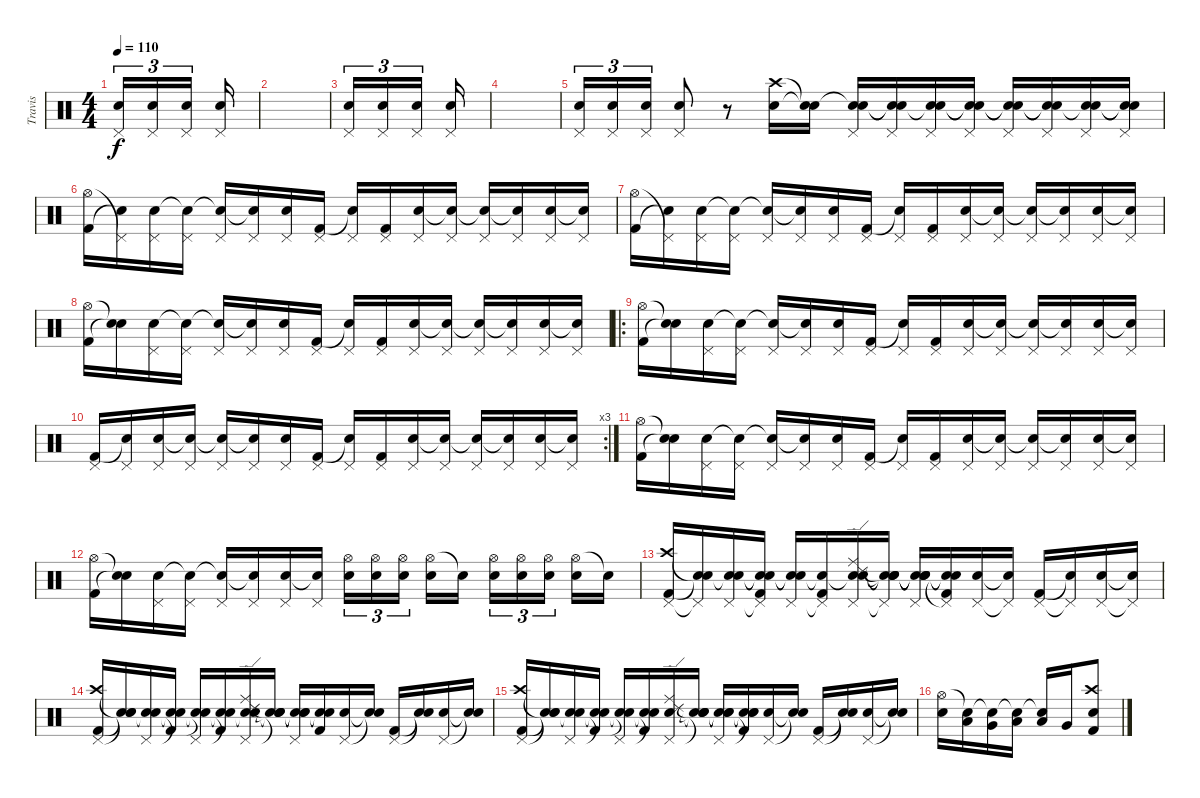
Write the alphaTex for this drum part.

\track ("Travis" "Travis") {instrument percussion}
\staff {score}
\articulation defaults
\ts (4 4)
\tempo 110
\clef neutral
\ks c
("Pedal Hi-Hat (hit)" "Electric Snare (hit)").16{tu (3 2) dy f} ("Pedal Hi-Hat (hit)" "Electric Snare (hit)").16{tu (3 2)} ("Pedal Hi-Hat (hit)" "Electric Snare (hit)").16{tu (3 2)} ("Pedal Hi-Hat (hit)" "Electric Snare (hit)").16 |
|
("Pedal Hi-Hat (hit)" "Electric Snare (hit)").16{tu (3 2)} ("Pedal Hi-Hat (hit)" "Electric Snare (hit)").16{tu (3 2)} ("Pedal Hi-Hat (hit)" "Electric Snare (hit)").16{tu (3 2)} ("Pedal Hi-Hat (hit)" "Electric Snare (hit)").16 |
|
("Pedal Hi-Hat (hit)" "Electric Snare (hit)").16{tu (3 2)} ("Pedal Hi-Hat (hit)" "Electric Snare (hit)").16{tu (3 2)} ("Pedal Hi-Hat (hit)" "Electric Snare (hit)").16{tu (3 2)} ("Pedal Hi-Hat (hit)" "Electric Snare (hit)").8 r.8 ("Crash high (hit)" "Electric Snare (hit)").16 ("Snare (hit)"{t} "Snare (hit)"{t}).16 ("Snare (hit)"{t} "Pedal Hi-Hat (hit)" "Snare (hit)").16 ("Snare (hit)"{t} "Pedal Hi-Hat (hit)" "Snare (hit)"{t}).16 ("Snare (hit)"{t} "Pedal Hi-Hat (hit)" "Electric Snare (hit)").16 ("Snare (hit)"{t} "Pedal Hi-Hat (hit)" "Snare (hit)"{t}).16 ("Snare (hit)"{t} "Pedal Hi-Hat (hit)" "Snare (hit)"{t}).16 ("Snare (hit)"{t} "Pedal Hi-Hat (hit)" "Snare (hit)"{t}).16 ("Snare (hit)"{t} "Pedal Hi-Hat (hit)" "Electric Snare (hit)").16 ("Snare (hit)"{t} "Pedal Hi-Hat (hit)" "Snare (hit)"{t}).16 |
("Hi-Hat (open)" "Kick (hit) 2").16 ("Pedal Hi-Hat (hit)"{t} "Snare (hit)"{t}).16 ("Pedal Hi-Hat (hit)" "Electric Snare (hit)").16 ("Pedal Hi-Hat (hit)" "Snare (hit)"{t}).16 ("Pedal Hi-Hat (hit)" "Snare (hit)"{t}).16 ("Pedal Hi-Hat (hit)" "Snare (hit)"{t}).16 ("Pedal Hi-Hat (hit)" "Electric Snare (hit)").16 ("Pedal Hi-Hat (hit)" "Kick (hit) 2").16 ("Pedal Hi-Hat (hit)" "Snare (hit)"{t}).16 ("Pedal Hi-Hat (hit)" "Kick (hit) 2").16 ("Pedal Hi-Hat (hit)" "Electric Snare (hit)").16 ("Pedal Hi-Hat (hit)" "Snare (hit)"{t}).16 ("Pedal Hi-Hat (hit)" "Snare (hit)"{t}).16 ("Pedal Hi-Hat (hit)" "Snare (hit)"{t}).16 ("Pedal Hi-Hat (hit)" "Electric Snare (hit)").16 ("Pedal Hi-Hat (hit)" "Snare (hit)"{t}).16 |
("Hi-Hat (open)" "Kick (hit) 2").16 ("Pedal Hi-Hat (hit)"{t} "Snare (hit)"{t}).16 ("Pedal Hi-Hat (hit)" "Electric Snare (hit)").16 ("Pedal Hi-Hat (hit)" "Snare (hit)"{t}).16 ("Pedal Hi-Hat (hit)" "Snare (hit)"{t}).16 ("Pedal Hi-Hat (hit)" "Snare (hit)"{t}).16 ("Pedal Hi-Hat (hit)" "Electric Snare (hit)").16 ("Pedal Hi-Hat (hit)" "Kick (hit) 2").16 ("Pedal Hi-Hat (hit)" "Snare (hit)"{t}).16 ("Pedal Hi-Hat (hit)" "Kick (hit) 2").16 ("Pedal Hi-Hat (hit)" "Electric Snare (hit)").16 ("Pedal Hi-Hat (hit)" "Snare (hit)"{t}).16 ("Pedal Hi-Hat (hit)" "Snare (hit)"{t}).16 ("Pedal Hi-Hat (hit)" "Snare (hit)"{t}).16 ("Pedal Hi-Hat (hit)" "Electric Snare (hit)").16 ("Pedal Hi-Hat (hit)" "Snare (hit)"{t}).16 |
("Hi-Hat (open)" "Kick (hit) 2").16 ("Snare (hit)"{t} "Snare (hit)"{t}).16 ("Pedal Hi-Hat (hit)" "Electric Snare (hit)").16 ("Pedal Hi-Hat (hit)" "Snare (hit)"{t}).16 ("Pedal Hi-Hat (hit)" "Snare (hit)"{t}).16 ("Pedal Hi-Hat (hit)" "Electric Snare (hit)"{t}).16 ("Pedal Hi-Hat (hit)" "Electric Snare (hit)").16 ("Pedal Hi-Hat (hit)" "Kick (hit) 2").16 ("Pedal Hi-Hat (hit)" "Snare (hit)"{t}).16 ("Pedal Hi-Hat (hit)" "Kick (hit) 2").16 ("Pedal Hi-Hat (hit)" "Electric Snare (hit)").16 ("Pedal Hi-Hat (hit)" "Snare (hit)"{t}).16 ("Pedal Hi-Hat (hit)" "Snare (hit)"{t}).16 ("Pedal Hi-Hat (hit)" "Snare (hit)"{t}).16 ("Pedal Hi-Hat (hit)" "Electric Snare (hit)").16 ("Pedal Hi-Hat (hit)" "Snare (hit)"{t}).16 |
\ro
("Hi-Hat (open)" "Kick (hit) 2").16 ("Snare (hit)"{t} "Snare (hit)"{t}).16 ("Pedal Hi-Hat (hit)" "Electric Snare (hit)").16 ("Pedal Hi-Hat (hit)" "Snare (hit)"{t}).16 ("Pedal Hi-Hat (hit)" "Snare (hit)"{t}).16 ("Pedal Hi-Hat (hit)" "Snare (hit)"{t}).16 ("Pedal Hi-Hat (hit)" "Electric Snare (hit)").16 ("Pedal Hi-Hat (hit)" "Kick (hit) 2").16 ("Pedal Hi-Hat (hit)" "Snare (hit)"{t}).16 ("Pedal Hi-Hat (hit)" "Kick (hit) 2").16 ("Pedal Hi-Hat (hit)" "Electric Snare (hit)").16 ("Pedal Hi-Hat (hit)" "Snare (hit)"{t}).16 ("Pedal Hi-Hat (hit)" "Snare (hit)"{t}).16 ("Pedal Hi-Hat (hit)" "Snare (hit)"{t}).16 ("Pedal Hi-Hat (hit)" "Electric Snare (hit)").16 ("Pedal Hi-Hat (hit)" "Snare (hit)"{t}).16 |
\rc 3
("Pedal Hi-Hat (hit)" "Kick (hit) 2").16 ("Pedal Hi-Hat (hit)" "Snare (hit)"{t}).16 ("Pedal Hi-Hat (hit)" "Electric Snare (hit)").16 ("Pedal Hi-Hat (hit)" "Snare (hit)"{t}).16 ("Pedal Hi-Hat (hit)" "Snare (hit)"{t}).16 ("Pedal Hi-Hat (hit)" "Snare (hit)"{t}).16 ("Pedal Hi-Hat (hit)" "Electric Snare (hit)").16 ("Pedal Hi-Hat (hit)" "Kick (hit) 2").16 ("Pedal Hi-Hat (hit)" "Snare (hit)"{t}).16 ("Pedal Hi-Hat (hit)" "Kick (hit) 2").16 ("Pedal Hi-Hat (hit)" "Electric Snare (hit)").16 ("Pedal Hi-Hat (hit)" "Snare (hit)"{t}).16 ("Pedal Hi-Hat (hit)" "Snare (hit)"{t}).16 ("Pedal Hi-Hat (hit)" "Snare (hit)"{t}).16 ("Pedal Hi-Hat (hit)" "Electric Snare (hit)").16 ("Pedal Hi-Hat (hit)" "Snare (hit)"{t}).16 |
("Hi-Hat (open)" "Kick (hit) 2").16 ("Snare (hit)"{t} "Snare (hit)"{t}).16 ("Pedal Hi-Hat (hit)" "Electric Snare (hit)").16 ("Pedal Hi-Hat (hit)" "Snare (hit)"{t}).16 ("Pedal Hi-Hat (hit)" "Snare (hit)"{t}).16 ("Pedal Hi-Hat (hit)" "Electric Snare (hit)"{t}).16 ("Pedal Hi-Hat (hit)" "Electric Snare (hit)").16 ("Pedal Hi-Hat (hit)" "Kick (hit) 2").16 ("Pedal Hi-Hat (hit)" "Snare (hit)"{t}).16 ("Pedal Hi-Hat (hit)" "Kick (hit) 2").16 ("Pedal Hi-Hat (hit)" "Electric Snare (hit)").16 ("Pedal Hi-Hat (hit)" "Snare (hit)"{t}).16 ("Pedal Hi-Hat (hit)" "Snare (hit)"{t}).16 ("Pedal Hi-Hat (hit)" "Electric Snare (hit)"{t}).16 ("Pedal Hi-Hat (hit)" "Electric Snare (hit)").16 ("Pedal Hi-Hat (hit)" "Snare (hit)"{t}).16 |
("Hi-Hat (open)" "Kick (hit) 2").16 ("Snare (hit)"{t} "Snare (hit)"{t}).16 ("Pedal Hi-Hat (hit)" "Electric Snare (hit)").16 ("Pedal Hi-Hat (hit)" "Snare (hit)"{t}).16 ("Pedal Hi-Hat (hit)" "Snare (hit)"{t}).16 ("Pedal Hi-Hat (hit)" "Snare (hit)"{t}).16 ("Pedal Hi-Hat (hit)" "Electric Snare (hit)").16 ("Pedal Hi-Hat (hit)" "Snare (hit)"{t}).16 ("Hi-Hat (open)" "Electric Snare (hit)").16{tu (3 2)} ("Hi-Hat (open)" "Electric Snare (hit)").16{tu (3 2)} ("Hi-Hat (open)" "Electric Snare (hit)").16{tu (3 2)} ("Hi-Hat (open)" "Electric Snare (hit)").16 "Snare (hit)"{t}.16 ("Hi-Hat (open)" "Electric Snare (hit)").16{tu (3 2)} ("Hi-Hat (open)" "Electric Snare (hit)").16{tu (3 2)} ("Hi-Hat (open)" "Electric Snare (hit)").16{tu (3 2)} ("Hi-Hat (open)" "Electric Snare (hit)").16 "Snare (hit)"{t}.16 |
("Crash high (hit)" "Pedal Hi-Hat (hit)" "Kick (hit) 2").16 ("Snare (hit)"{t} "Pedal Hi-Hat (hit)"{t} "Snare (hit)"{t}).16 ("Snare (hit)"{t} "Pedal Hi-Hat (hit)" "Electric Snare (hit)").16 ("Snare (hit)"{t} "Pedal Hi-Hat (hit)"{t} "Electric Snare (hit)"{t} "Kick (hit) 2").16 ("Snare (hit)"{t} "Pedal Hi-Hat (hit)" "Snare (hit)"{t}).16 ("Snare (hit)"{t} "Pedal Hi-Hat (hit)"{t} "Kick (hit) 2").16 ("Snare (hit)"{t} "Ride (middle)" "Ride (edge) 2" "Pedal Hi-Hat (hit)" "Electric Snare (hit)").16 ("Snare (hit)"{t} "Snare (hit)"{t} "Snare (hit)"{t} "Pedal Hi-Hat (hit)"{t} "Snare (hit)"{t}).16 ("Snare (hit)"{t} "Snare (hit)"{t} "Snare (hit)"{t} "Pedal Hi-Hat (hit)" "Snare (hit)"{t}).16 ("Snare (hit)"{t} "Snare (hit)"{t} "Pedal Hi-Hat (hit)"{t} "Kick (hit) 2").16 ("Pedal Hi-Hat (hit)" "Electric Snare (hit)").16 ("Pedal Hi-Hat (hit)"{t} "Snare (hit)"{t}).16 ("Pedal Hi-Hat (hit)" "Kick (hit) 2").16 ("Pedal Hi-Hat (hit)"{t} "Snare (hit)"{t}).16 ("Pedal Hi-Hat (hit)" "Electric Snare (hit)").16 ("Pedal Hi-Hat (hit)"{t} "Snare (hit)"{t}).16 |
("Crash high (hit)" "Pedal Hi-Hat (hit)" "Kick (hit) 2").16 ("Snare (hit)"{t} "Snare (hit)"{t} "Snare (hit)"{t}).16 ("Snare (hit)"{t} "Pedal Hi-Hat (hit)" "Electric Snare (hit)").16 ("Snare (hit)"{t} "Snare (hit)"{t} "Kick (hit) 2").16 ("Snare (hit)"{t} "Pedal Hi-Hat (hit)" "Snare (hit)"{t}).16 ("Snare (hit)"{t} "Snare (hit)"{t} "Kick (hit) 2").16 ("Snare (hit)"{t} "Ride (middle)" "Ride (edge) 2" "Pedal Hi-Hat (hit)" "Electric Snare (hit)").16 ("Snare (hit)"{t} "Snare (hit)"{t} "Snare (hit)"{t} "Snare (hit)"{t}).16 ("Snare (hit)"{t} "Snare (hit)"{t} "Pedal Hi-Hat (hit)" "Snare (hit)"{t}).16 ("Snare (hit)"{t} "Snare (hit)"{t} "Kick (hit) 2").16 ("Pedal Hi-Hat (hit)" "Electric Snare (hit)").16 ("Snare (hit)"{t} "Snare (hit)"{t}).16 ("Pedal Hi-Hat (hit)" "Kick (hit) 2").16 ("Snare (hit)"{t} "Snare (hit)"{t}).16 ("Pedal Hi-Hat (hit)" "Electric Snare (hit)").16 ("Snare (hit)"{t} "Snare (hit)"{t}).16 |
("Crash high (hit)" "Pedal Hi-Hat (hit)" "Kick (hit) 2").16 ("Snare (hit)"{t} "Snare (hit)"{t} "Snare (hit)"{t}).16 ("Snare (hit)"{t} "Pedal Hi-Hat (hit)" "Electric Snare (hit)").16 ("Snare (hit)"{t} "Snare (hit)"{t} "Kick (hit) 2").16 ("Snare (hit)"{t} "Pedal Hi-Hat (hit)" "Snare (hit)"{t}).16 ("Snare (hit)"{t} "Snare (hit)"{t} "Kick (hit) 2").16 ("Ride (middle)" "Ride (edge) 2" "Pedal Hi-Hat (hit)" "Electric Snare (hit)").16 ("Snare (hit)"{t} "Snare (hit)"{t} "Snare (hit)"{t} "Snare (hit)"{t}).16 ("Snare (hit)"{t} "Snare (hit)"{t} "Pedal Hi-Hat (hit)" "Snare (hit)"{t}).16 ("Snare (hit)"{t} "Snare (hit)"{t} "Snare (hit)"{t} "Kick (hit) 2").16 ("Pedal Hi-Hat (hit)" "Electric Snare (hit)").16 ("Snare (hit)"{t} "Snare (hit)"{t}).16 ("Pedal Hi-Hat (hit)" "Kick (hit) 2").16 ("Snare (hit)"{t} "Snare (hit)"{t}).16 ("Pedal Hi-Hat (hit)" "Electric Snare (hit)").16 ("Snare (hit)"{t} "Snare (hit)"{t}).16 |
("Hi-Hat (open)" "Electric Snare (hit)").16 ("Snare (hit)"{t} "Low Tom (hit)").16 ("Snare (hit)"{t} "Very Low Tom (hit)").16 ("Snare (hit)"{t} "Low Floor Tom (hit)").16 ("Snare (hit)"{t} "Low Tom (hit)").16 "Very Low Tom (hit)".16 ("Crash high (hit)" "Electric Snare (hit)" "Kick (hit) 2").8
